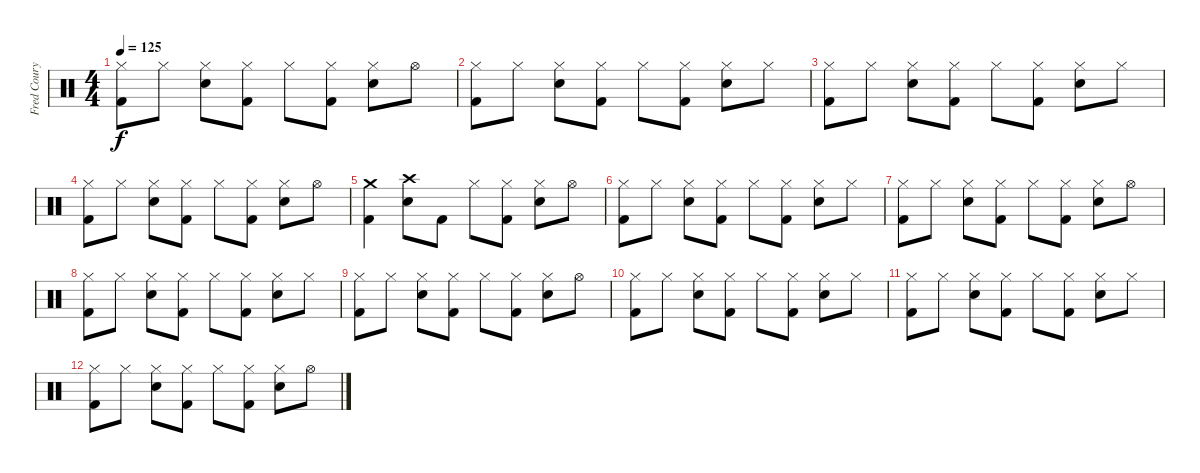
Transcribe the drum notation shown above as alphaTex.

\track ("Fred Coury - Drums" "Fred Coury") {instrument percussion}
\staff {score}
\articulation defaults
\ts (4 4)
\tempo 125
\clef neutral
\ks c
("Hi-Hat (closed)" "Kick (hit) 2").8{dy f} "Hi-Hat (closed)".8 ("Hi-Hat (closed)" "Snare (hit) 2").8 ("Hi-Hat (closed)" "Kick (hit) 2").8 "Hi-Hat (closed)".8 ("Hi-Hat (closed)" "Kick (hit) 2").8 ("Hi-Hat (closed)" "Snare (hit) 2").8 "Hi-Hat (open)".8 |
("Hi-Hat (closed)" "Kick (hit) 2").8 "Hi-Hat (closed)".8 ("Hi-Hat (closed)" "Snare (hit) 2").8 ("Hi-Hat (closed)" "Kick (hit) 2").8 "Hi-Hat (closed)".8 ("Hi-Hat (closed)" "Kick (hit) 2").8 ("Hi-Hat (closed)" "Snare (hit) 2").8 "Hi-Hat (closed)".8 |
("Hi-Hat (closed)" "Kick (hit) 2").8 "Hi-Hat (closed)".8 ("Hi-Hat (closed)" "Snare (hit) 2").8 ("Hi-Hat (closed)" "Kick (hit) 2").8 "Hi-Hat (closed)".8 ("Hi-Hat (closed)" "Kick (hit) 2").8 ("Hi-Hat (closed)" "Snare (hit) 2").8 "Hi-Hat (closed)".8 |
("Hi-Hat (closed)" "Kick (hit) 2").8 "Hi-Hat (closed)".8 ("Hi-Hat (closed)" "Snare (hit) 2").8 ("Hi-Hat (closed)" "Kick (hit) 2").8 "Hi-Hat (closed)".8 ("Hi-Hat (closed)" "Kick (hit) 2").8 ("Hi-Hat (closed)" "Snare (hit) 2").8 "Hi-Hat (open)".8 |
("Crash medium (hit)" "Kick (hit) 2").4 ("Crash high (hit)" "Snare (hit) 2").8 "Kick (hit) 2".8 "Hi-Hat (closed)".8 ("Hi-Hat (closed)" "Kick (hit) 2").8 ("Hi-Hat (closed)" "Snare (hit) 2").8 "Hi-Hat (open)".8 |
("Hi-Hat (closed)" "Kick (hit) 2").8 "Hi-Hat (closed)".8 ("Hi-Hat (closed)" "Snare (hit) 2").8 ("Hi-Hat (closed)" "Kick (hit) 2").8 "Hi-Hat (closed)".8 ("Hi-Hat (closed)" "Kick (hit) 2").8 ("Hi-Hat (closed)" "Snare (hit) 2").8 "Hi-Hat (closed)".8 |
("Hi-Hat (closed)" "Kick (hit) 2").8 "Hi-Hat (closed)".8 ("Hi-Hat (closed)" "Snare (hit) 2").8 ("Hi-Hat (closed)" "Kick (hit) 2").8 "Hi-Hat (closed)".8 ("Hi-Hat (closed)" "Kick (hit) 2").8 ("Hi-Hat (closed)" "Snare (hit) 2").8 "Hi-Hat (open)".8 |
("Hi-Hat (closed)" "Kick (hit) 2").8 "Hi-Hat (closed)".8 ("Hi-Hat (closed)" "Snare (hit) 2").8 ("Hi-Hat (closed)" "Kick (hit) 2").8 "Hi-Hat (closed)".8 ("Hi-Hat (closed)" "Kick (hit) 2").8 ("Hi-Hat (closed)" "Snare (hit) 2").8 "Hi-Hat (closed)".8 |
("Hi-Hat (closed)" "Kick (hit) 2").8 "Hi-Hat (closed)".8 ("Hi-Hat (closed)" "Snare (hit) 2").8 ("Hi-Hat (closed)" "Kick (hit) 2").8 "Hi-Hat (closed)".8 ("Hi-Hat (closed)" "Kick (hit) 2").8 ("Hi-Hat (closed)" "Snare (hit) 2").8 "Hi-Hat (open)".8 |
("Hi-Hat (closed)" "Kick (hit) 2").8 "Hi-Hat (closed)".8 ("Hi-Hat (closed)" "Snare (hit) 2").8 ("Hi-Hat (closed)" "Kick (hit) 2").8 "Hi-Hat (closed)".8 ("Hi-Hat (closed)" "Kick (hit) 2").8 ("Hi-Hat (closed)" "Snare (hit) 2").8 "Hi-Hat (closed)".8 |
("Hi-Hat (closed)" "Kick (hit) 2").8 "Hi-Hat (closed)".8 ("Hi-Hat (closed)" "Snare (hit) 2").8 ("Hi-Hat (closed)" "Kick (hit) 2").8 "Hi-Hat (closed)".8 ("Hi-Hat (closed)" "Kick (hit) 2").8 ("Hi-Hat (closed)" "Snare (hit) 2").8 "Hi-Hat (closed)".8 |
("Hi-Hat (closed)" "Kick (hit) 2").8 "Hi-Hat (closed)".8 ("Hi-Hat (closed)" "Snare (hit) 2").8 ("Hi-Hat (closed)" "Kick (hit) 2").8 "Hi-Hat (closed)".8 ("Hi-Hat (closed)" "Kick (hit) 2").8 ("Hi-Hat (closed)" "Snare (hit) 2").8 "Hi-Hat (open)".8
